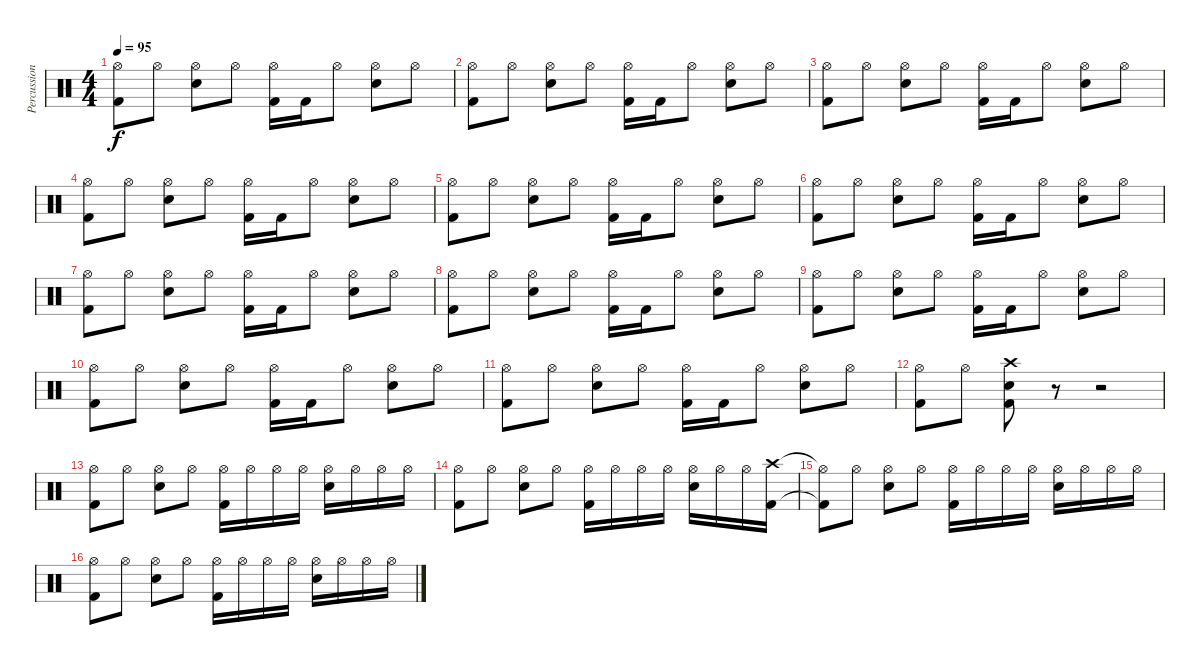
\track ("Percussion" "Percussion") {instrument percussion}
\staff {score}
\articulation defaults
\ts (4 4)
\tempo 95
\clef neutral
\ks c
("Hi-Hat (open)" "Kick (hit) 2").8{dy f} "Hi-Hat (open)".8 ("Hi-Hat (open)" "Snare (hit) 2").8 "Hi-Hat (open)".8 ("Hi-Hat (open)" "Kick (hit) 2").16 "Kick (hit) 2".16 "Hi-Hat (open)".8 ("Hi-Hat (open)" "Snare (hit) 2").8 "Hi-Hat (open)".8 |
("Hi-Hat (open)" "Kick (hit) 2").8 "Hi-Hat (open)".8 ("Hi-Hat (open)" "Snare (hit) 2").8 "Hi-Hat (open)".8 ("Hi-Hat (open)" "Kick (hit) 2").16 "Kick (hit) 2".16 "Hi-Hat (open)".8 ("Hi-Hat (open)" "Snare (hit) 2").8 "Hi-Hat (open)".8 |
("Hi-Hat (open)" "Kick (hit) 2").8 "Hi-Hat (open)".8 ("Hi-Hat (open)" "Snare (hit) 2").8 "Hi-Hat (open)".8 ("Hi-Hat (open)" "Kick (hit) 2").16 "Kick (hit) 2".16 "Hi-Hat (open)".8 ("Hi-Hat (open)" "Snare (hit) 2").8 "Hi-Hat (open)".8 |
("Hi-Hat (open)" "Kick (hit) 2").8 "Hi-Hat (open)".8 ("Hi-Hat (open)" "Snare (hit) 2").8 "Hi-Hat (open)".8 ("Hi-Hat (open)" "Kick (hit) 2").16 "Kick (hit) 2".16 "Hi-Hat (open)".8 ("Hi-Hat (open)" "Snare (hit) 2").8 "Hi-Hat (open)".8 |
("Hi-Hat (open)" "Kick (hit) 2").8 "Hi-Hat (open)".8 ("Hi-Hat (open)" "Snare (hit) 2").8 "Hi-Hat (open)".8 ("Hi-Hat (open)" "Kick (hit) 2").16 "Kick (hit) 2".16 "Hi-Hat (open)".8 ("Hi-Hat (open)" "Snare (hit) 2").8 "Hi-Hat (open)".8 |
("Hi-Hat (open)" "Kick (hit) 2").8 "Hi-Hat (open)".8 ("Hi-Hat (open)" "Snare (hit) 2").8 "Hi-Hat (open)".8 ("Hi-Hat (open)" "Kick (hit) 2").16 "Kick (hit) 2".16 "Hi-Hat (open)".8 ("Hi-Hat (open)" "Snare (hit) 2").8 "Hi-Hat (open)".8 |
("Hi-Hat (open)" "Kick (hit) 2").8 "Hi-Hat (open)".8 ("Hi-Hat (open)" "Snare (hit) 2").8 "Hi-Hat (open)".8 ("Hi-Hat (open)" "Kick (hit) 2").16 "Kick (hit) 2".16 "Hi-Hat (open)".8 ("Hi-Hat (open)" "Snare (hit) 2").8 "Hi-Hat (open)".8 |
("Hi-Hat (open)" "Kick (hit) 2").8 "Hi-Hat (open)".8 ("Hi-Hat (open)" "Snare (hit) 2").8 "Hi-Hat (open)".8 ("Hi-Hat (open)" "Kick (hit) 2").16 "Kick (hit) 2".16 "Hi-Hat (open)".8 ("Hi-Hat (open)" "Snare (hit) 2").8 "Hi-Hat (open)".8 |
("Hi-Hat (open)" "Kick (hit) 2").8 "Hi-Hat (open)".8 ("Hi-Hat (open)" "Snare (hit) 2").8 "Hi-Hat (open)".8 ("Hi-Hat (open)" "Kick (hit) 2").16 "Kick (hit) 2".16 "Hi-Hat (open)".8 ("Hi-Hat (open)" "Snare (hit) 2").8 "Hi-Hat (open)".8 |
("Hi-Hat (open)" "Kick (hit) 2").8 "Hi-Hat (open)".8 ("Hi-Hat (open)" "Snare (hit) 2").8 "Hi-Hat (open)".8 ("Hi-Hat (open)" "Kick (hit) 2").16 "Kick (hit) 2".16 "Hi-Hat (open)".8 ("Hi-Hat (open)" "Snare (hit) 2").8 "Hi-Hat (open)".8 |
("Hi-Hat (open)" "Kick (hit) 2").8 "Hi-Hat (open)".8 ("Hi-Hat (open)" "Snare (hit) 2").8 "Hi-Hat (open)".8 ("Hi-Hat (open)" "Kick (hit) 2").16 "Kick (hit) 2".16 "Hi-Hat (open)".8 ("Hi-Hat (open)" "Snare (hit) 2").8 "Hi-Hat (open)".8 |
("Hi-Hat (open)" "Kick (hit) 2").8 "Hi-Hat (open)".8 ("Crash high (hit)" "Snare (hit) 2" "Kick (hit) 2").8 r.8 r.2 |
("Hi-Hat (open)" "Kick (hit) 2").8 "Hi-Hat (open)".8 ("Hi-Hat (open)" "Snare (hit) 2").8 "Hi-Hat (open)".8 ("Hi-Hat (open)" "Kick (hit) 2").16 "Hi-Hat (open)".16 "Hi-Hat (open)".16 "Hi-Hat (open)".16 ("Hi-Hat (open)" "Snare (hit) 2").16 "Hi-Hat (open)".16 "Hi-Hat (open)".16 "Hi-Hat (open)".16 |
("Hi-Hat (open)" "Kick (hit) 2").8 "Hi-Hat (open)".8 ("Hi-Hat (open)" "Snare (hit) 2").8 "Hi-Hat (open)".8 ("Hi-Hat (open)" "Kick (hit) 2").16 "Hi-Hat (open)".16 "Hi-Hat (open)".16 "Hi-Hat (open)".16 ("Hi-Hat (open)" "Snare (hit) 2").16 "Hi-Hat (open)".16 "Hi-Hat (open)".16 ("Crash high (hit)" "Kick (hit) 2").16 |
("Hi-Hat (open)"{t} "Kick (hit) 2"{t}).8 "Hi-Hat (open)".8 ("Hi-Hat (open)" "Snare (hit) 2").8 "Hi-Hat (open)".8 ("Hi-Hat (open)" "Kick (hit) 2").16 "Hi-Hat (open)".16 "Hi-Hat (open)".16 "Hi-Hat (open)".16 ("Hi-Hat (open)" "Snare (hit) 2").16 "Hi-Hat (open)".16 "Hi-Hat (open)".16 "Hi-Hat (open)".16 |
("Hi-Hat (open)" "Kick (hit) 2").8 "Hi-Hat (open)".8 ("Hi-Hat (open)" "Snare (hit) 2").8 "Hi-Hat (open)".8 ("Hi-Hat (open)" "Kick (hit) 2").16 "Hi-Hat (open)".16 "Hi-Hat (open)".16 "Hi-Hat (open)".16 ("Hi-Hat (open)" "Snare (hit) 2").16 "Hi-Hat (open)".16 "Hi-Hat (open)".16 "Hi-Hat (open)".16
